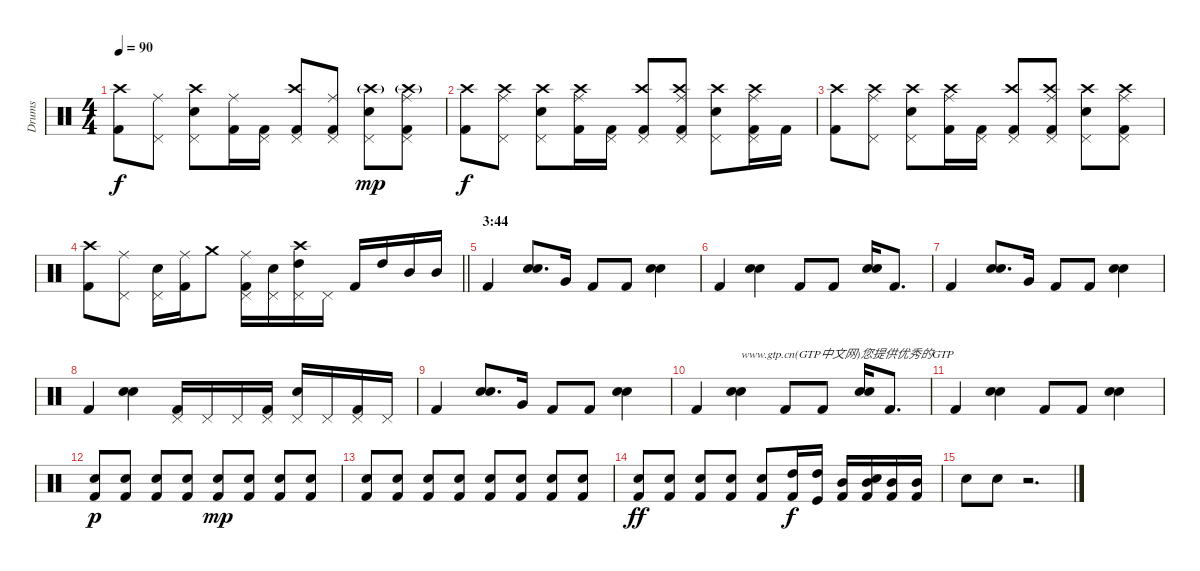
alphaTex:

\track ("Drums" "Drums") {instrument percussion}
\staff {score}
\articulation defaults
\ts (4 4)
\tempo 90
\clef neutral
\ks c
("Kick (hit) 2" "Crash high (hit)").8{dy f} ("Pedal Hi-Hat (hit)" "Ride (middle)").8 ("Snare (hit) 2" "Pedal Hi-Hat (hit)" "Crash high (hit)").8 ("Kick (hit) 2" "Ride (middle)").16 ("Kick (hit) 2" "Pedal Hi-Hat (hit)").16 ("Kick (hit) 2" "Pedal Hi-Hat (hit)" "Crash high (hit)").8 ("Kick (hit) 2" "Pedal Hi-Hat (hit)" "Ride (middle)").8 ("Snare (hit) 2" "Pedal Hi-Hat (hit)" "Crash high (hit)"{g}).8{dy mp} ("Kick (hit) 2" "Pedal Hi-Hat (hit)" "Crash high (hit)"{g} "Ride (middle)").8 |
("Kick (hit) 2" "Crash high (hit)").8{dy f} ("Pedal Hi-Hat (hit)" "Crash high (hit)" "Ride (middle)").8 ("Snare (hit) 2" "Pedal Hi-Hat (hit)" "Crash high (hit)").8 ("Kick (hit) 2" "Crash high (hit)" "Ride (middle)").16 ("Kick (hit) 2" "Pedal Hi-Hat (hit)").16 ("Kick (hit) 2" "Pedal Hi-Hat (hit)" "Crash high (hit)").8 ("Kick (hit) 2" "Pedal Hi-Hat (hit)" "Crash high (hit)" "Ride (middle)").8 ("Snare (hit) 2" "Pedal Hi-Hat (hit)" "Crash high (hit)").8 ("Kick (hit) 2" "Pedal Hi-Hat (hit)" "Crash high (hit)" "Ride (middle)").16 "Kick (hit) 2".16 |
("Kick (hit) 2" "Crash high (hit)").8 ("Pedal Hi-Hat (hit)" "Crash high (hit)" "Ride (middle)").8 ("Snare (hit) 2" "Pedal Hi-Hat (hit)" "Crash high (hit)").8 ("Kick (hit) 2" "Crash high (hit)" "Ride (middle)").16 ("Kick (hit) 2" "Pedal Hi-Hat (hit)").16 ("Kick (hit) 2" "Pedal Hi-Hat (hit)" "Crash high (hit)").8 ("Kick (hit) 2" "Pedal Hi-Hat (hit)" "Crash high (hit)" "Ride (middle)").8 ("Snare (hit) 2" "Pedal Hi-Hat (hit)" "Crash high (hit)").8 ("Kick (hit) 2" "Pedal Hi-Hat (hit)" "Crash high (hit)" "Ride (middle)").8 |
\barLineRight lightlight
("Kick (hit) 2" "Crash high (hit)").8 ("Pedal Hi-Hat (hit)" "Ride (middle)").8 ("Snare (hit) 2" "Pedal Hi-Hat (hit)").16 ("Kick (hit) 2" "Ride (middle)").16 "Crash medium (hit)".8 ("Kick (hit) 2" "Pedal Hi-Hat (hit)" "Ride (middle)").16 ("Snare (hit) 2" "Pedal Hi-Hat (hit)").16 ("High Tom (hit)" "Pedal Hi-Hat (hit)" "Crash high (hit)").16 "Pedal Hi-Hat (hit)".16 "Kick (hit) 2".16 "High Tom (hit)".16 "Mid Tom (hit)".16 "Mid Tom (hit)".16 |
\section ("" "3:44")
"Kick (hit) 2".4 ("Hand Clap (hit)" "Snare (hit) 2").8{d} "Very Low Tom (hit)".16 "Kick (hit) 2".8 "Kick (hit) 2".8 ("Hand Clap (hit)" "Snare (hit) 2").4 |
"Kick (hit) 2".4 ("Hand Clap (hit)" "Snare (hit) 2").4 "Kick (hit) 2".8 "Kick (hit) 2".8 ("Hand Clap (hit)" "Snare (hit) 2").16 "Kick (hit) 2".8{d} |
"Kick (hit) 2".4 ("Hand Clap (hit)" "Snare (hit) 2").8{d} "Very Low Tom (hit)".16 "Kick (hit) 2".8 "Kick (hit) 2".8 ("Hand Clap (hit)" "Snare (hit) 2").4 |
"Kick (hit) 2".4 ("Hand Clap (hit)" "Snare (hit) 2").4 ("Kick (hit) 2" "Pedal Hi-Hat (hit)").16 "Pedal Hi-Hat (hit)".16 "Pedal Hi-Hat (hit)".16 ("Kick (hit) 2" "Pedal Hi-Hat (hit)").16 ("Snare (hit) 2" "Pedal Hi-Hat (hit)").16 "Pedal Hi-Hat (hit)".16 ("Kick (hit) 2" "Pedal Hi-Hat (hit)").16 "Pedal Hi-Hat (hit)".16 |
"Kick (hit) 2".4 ("Hand Clap (hit)" "Snare (hit) 2").8{d} "Very Low Tom (hit)".16 "Kick (hit) 2".8 "Kick (hit) 2".8 ("Hand Clap (hit)" "Snare (hit) 2").4 |
"Kick (hit) 2".4 ("Hand Clap (hit)" "Snare (hit) 2").4{txt "www.gtp.cn(GTP中文网)您提供优秀的GTP"} "Kick (hit) 2".8 "Kick (hit) 2".8 ("Hand Clap (hit)" "Snare (hit) 2").16 "Kick (hit) 2".8{d} |
"Kick (hit) 2".4 ("Hand Clap (hit)" "Snare (hit) 2").4 "Kick (hit) 2".8 "Kick (hit) 2".8 ("Hand Clap (hit)" "Snare (hit) 2").4 |
("Kick (hit) 2" "Snare (hit) 2").8{dy p} ("Kick (hit) 2" "Snare (hit) 2").8 ("Kick (hit) 2" "Snare (hit) 2").8 ("Kick (hit) 2" "Snare (hit) 2").8 ("Kick (hit) 2" "Snare (hit) 2").8{dy mp} ("Kick (hit) 2" "Snare (hit) 2").8 ("Kick (hit) 2" "Snare (hit) 2").8 ("Kick (hit) 2" "Snare (hit) 2").8 |
("Kick (hit) 2" "Snare (hit) 2").8 ("Kick (hit) 2" "Snare (hit) 2").8 ("Kick (hit) 2" "Snare (hit) 2").8 ("Kick (hit) 2" "Snare (hit) 2").8 ("Kick (hit) 2" "Snare (hit) 2").8 ("Kick (hit) 2" "Snare (hit) 2").8 ("Kick (hit) 2" "Snare (hit) 2").8 ("Kick (hit) 2" "Snare (hit) 2").8 |
("Kick (hit) 2" "Snare (hit) 2").8{dy ff} ("Kick (hit) 2" "Snare (hit) 2").8 ("Kick (hit) 2" "Snare (hit) 2").8 ("Kick (hit) 2" "Snare (hit) 2").8 ("Kick (hit) 2" "Snare (hit) 2").8 ("Kick (hit) 2" "High Tom (hit)").16{dy f} ("Kick (hit)" "High Tom (hit)").16 ("Kick (hit) 2" "Mid Tom (hit)").16 ("Kick (hit) 2" "Snare (hit) 2" "Mid Tom (hit)").16 ("Kick (hit) 2" "Mid Tom (hit)").16 ("Kick (hit) 2" "Mid Tom (hit)").16 |
"Snare (hit) 2".8 "Snare (hit) 2".8 r.2{d}
